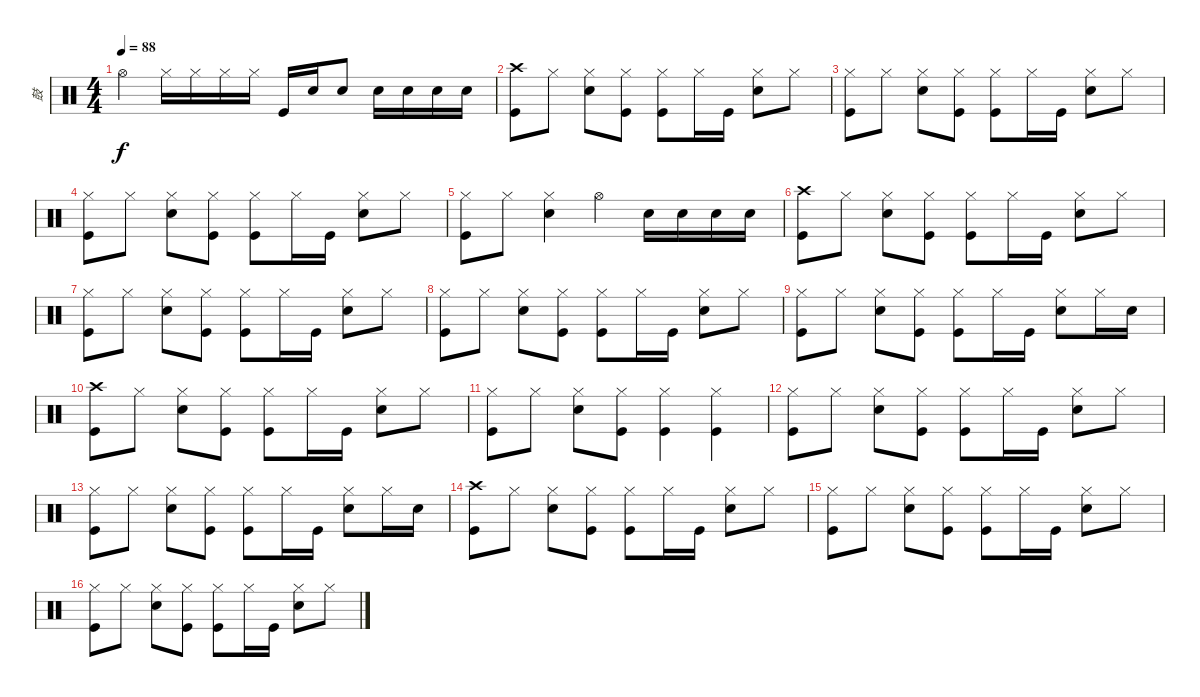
\track ("鼓" "鼓") {instrument percussion}
\staff {score}
\articulation defaults
\ts (4 4)
\tempo 88
\clef neutral
\ks c "Hi-Hat (open)".4{dy f} "Hi-Hat (closed)".16 "Hi-Hat (closed)".16 "Hi-Hat (closed)".16 "Hi-Hat (closed)".16 "Kick (hit)".16 "Snare (hit) 2".16 "Snare (hit) 2".8 "Snare (hit) 2".16 "Snare (hit) 2".16 "Snare (hit) 2".16 "Snare (hit) 2".16
|
("Crash high (hit)" "Kick (hit)").8 "Hi-Hat (closed)".8 ("Hi-Hat (closed)" "Snare (hit) 2").8 ("Hi-Hat (closed)" "Kick (hit)").8 ("Hi-Hat (closed)" "Kick (hit)").8 "Hi-Hat (closed)".16 "Kick (hit)".16 ("Hi-Hat (closed)" "Snare (hit) 2").8 "Hi-Hat (closed)".8 |
("Hi-Hat (closed)" "Kick (hit)").8 "Hi-Hat (closed)".8 ("Hi-Hat (closed)" "Snare (hit) 2").8 ("Hi-Hat (closed)" "Kick (hit)").8 ("Hi-Hat (closed)" "Kick (hit)").8 "Hi-Hat (closed)".16 "Kick (hit)".16 ("Hi-Hat (closed)" "Snare (hit) 2").8 "Hi-Hat (closed)".8 |
("Hi-Hat (closed)" "Kick (hit)").8 "Hi-Hat (closed)".8 ("Hi-Hat (closed)" "Snare (hit) 2").8 ("Hi-Hat (closed)" "Kick (hit)").8 ("Hi-Hat (closed)" "Kick (hit)").8 "Hi-Hat (closed)".16 "Kick (hit)".16 ("Hi-Hat (closed)" "Snare (hit) 2").8 "Hi-Hat (closed)".8 |
("Hi-Hat (closed)" "Kick (hit)").8 "Hi-Hat (closed)".8 ("Hi-Hat (closed)" "Snare (hit) 2").4 "Hi-Hat (open)".4 "Snare (hit) 2".16 "Snare (hit) 2".16 "Snare (hit) 2".16 "Snare (hit) 2".16 |
("Crash high (hit)" "Kick (hit)").8 "Hi-Hat (closed)".8 ("Hi-Hat (closed)" "Snare (hit) 2").8 ("Hi-Hat (closed)" "Kick (hit)").8 ("Hi-Hat (closed)" "Kick (hit)").8 "Hi-Hat (closed)".16 "Kick (hit)".16 ("Hi-Hat (closed)" "Snare (hit) 2").8 "Hi-Hat (closed)".8 |
("Hi-Hat (closed)" "Kick (hit)").8 "Hi-Hat (closed)".8 ("Hi-Hat (closed)" "Snare (hit) 2").8 ("Hi-Hat (closed)" "Kick (hit)").8 ("Hi-Hat (closed)" "Kick (hit)").8 "Hi-Hat (closed)".16 "Kick (hit)".16 ("Hi-Hat (closed)" "Snare (hit) 2").8 "Hi-Hat (closed)".8 |
("Hi-Hat (closed)" "Kick (hit)").8 "Hi-Hat (closed)".8 ("Hi-Hat (closed)" "Snare (hit) 2").8 ("Hi-Hat (closed)" "Kick (hit)").8 ("Hi-Hat (closed)" "Kick (hit)").8 "Hi-Hat (closed)".16 "Kick (hit)".16 ("Hi-Hat (closed)" "Snare (hit) 2").8 "Hi-Hat (closed)".8 |
("Hi-Hat (closed)" "Kick (hit)").8 "Hi-Hat (closed)".8 ("Hi-Hat (closed)" "Snare (hit) 2").8 ("Hi-Hat (closed)" "Kick (hit)").8 ("Hi-Hat (closed)" "Kick (hit)").8 "Hi-Hat (closed)".16 "Kick (hit)".16 ("Hi-Hat (closed)" "Snare (hit) 2").8 "Hi-Hat (closed)".16 "Snare (hit) 2".16 |
("Crash high (hit)" "Kick (hit)").8 "Hi-Hat (closed)".8 ("Hi-Hat (closed)" "Snare (hit) 2").8 ("Hi-Hat (closed)" "Kick (hit)").8 ("Hi-Hat (closed)" "Kick (hit)").8 "Hi-Hat (closed)".16 "Kick (hit)".16 ("Hi-Hat (closed)" "Snare (hit) 2").8 "Hi-Hat (closed)".8 |
("Hi-Hat (closed)" "Kick (hit)").8 "Hi-Hat (closed)".8 ("Hi-Hat (closed)" "Snare (hit) 2").8 ("Hi-Hat (closed)" "Kick (hit)").8 ("Hi-Hat (closed)" "Kick (hit)").4 ("Hi-Hat (closed)" "Kick (hit)").4 |
("Hi-Hat (closed)" "Kick (hit)").8 "Hi-Hat (closed)".8 ("Hi-Hat (closed)" "Snare (hit) 2").8 ("Hi-Hat (closed)" "Kick (hit)").8 ("Hi-Hat (closed)" "Kick (hit)").8 "Hi-Hat (closed)".16 "Kick (hit)".16 ("Hi-Hat (closed)" "Snare (hit) 2").8 "Hi-Hat (closed)".8 |
("Hi-Hat (closed)" "Kick (hit)").8 "Hi-Hat (closed)".8 ("Hi-Hat (closed)" "Snare (hit) 2").8 ("Hi-Hat (closed)" "Kick (hit)").8 ("Hi-Hat (closed)" "Kick (hit)").8 "Hi-Hat (closed)".16 "Kick (hit)".16 ("Hi-Hat (closed)" "Snare (hit) 2").8 "Hi-Hat (closed)".16 "Snare (hit) 2".16 |
("Crash high (hit)" "Kick (hit)").8 "Hi-Hat (closed)".8 ("Hi-Hat (closed)" "Snare (hit) 2").8 ("Hi-Hat (closed)" "Kick (hit)").8 ("Hi-Hat (closed)" "Kick (hit)").8 "Hi-Hat (closed)".16 "Kick (hit)".16 ("Hi-Hat (closed)" "Snare (hit) 2").8 "Hi-Hat (closed)".8 |
("Hi-Hat (closed)" "Kick (hit)").8 "Hi-Hat (closed)".8 ("Hi-Hat (closed)" "Snare (hit) 2").8 ("Hi-Hat (closed)" "Kick (hit)").8 ("Hi-Hat (closed)" "Kick (hit)").8 "Hi-Hat (closed)".16 "Kick (hit)".16 ("Hi-Hat (closed)" "Snare (hit) 2").8 "Hi-Hat (closed)".8 |
("Hi-Hat (closed)" "Kick (hit)").8 "Hi-Hat (closed)".8 ("Hi-Hat (closed)" "Snare (hit) 2").8 ("Hi-Hat (closed)" "Kick (hit)").8 ("Hi-Hat (closed)" "Kick (hit)").8 "Hi-Hat (closed)".16 "Kick (hit)".16 ("Hi-Hat (closed)" "Snare (hit) 2").8 "Hi-Hat (closed)".8
